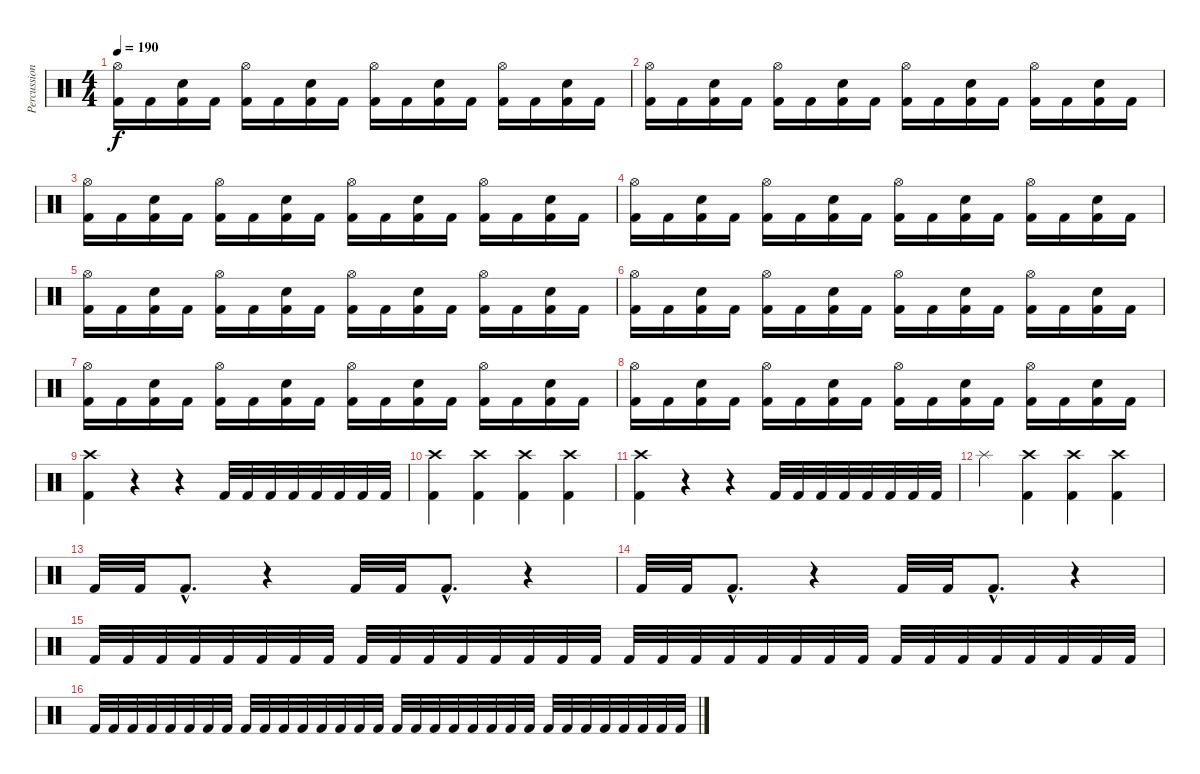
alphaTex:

\track ("Percussion" "Percussion") {instrument percussion}
\staff {score}
\articulation defaults
\ts (4 4)
\tempo 190
\clef neutral
\ks c
("Hi-Hat (open)" "Kick (hit) 2").16{dy f} "Kick (hit) 2".16 ("Snare (hit) 2" "Kick (hit) 2").16 "Kick (hit) 2".16 ("Hi-Hat (open)" "Kick (hit) 2").16 "Kick (hit) 2".16 ("Snare (hit) 2" "Kick (hit) 2").16 "Kick (hit) 2".16 ("Hi-Hat (open)" "Kick (hit) 2").16 "Kick (hit) 2".16 ("Snare (hit) 2" "Kick (hit) 2").16 "Kick (hit) 2".16 ("Hi-Hat (open)" "Kick (hit) 2").16 "Kick (hit) 2".16 ("Snare (hit) 2" "Kick (hit) 2").16 "Kick (hit) 2".16 |
("Hi-Hat (open)" "Kick (hit) 2").16 "Kick (hit) 2".16 ("Snare (hit) 2" "Kick (hit) 2").16 "Kick (hit) 2".16 ("Hi-Hat (open)" "Kick (hit) 2").16 "Kick (hit) 2".16 ("Snare (hit) 2" "Kick (hit) 2").16 "Kick (hit) 2".16 ("Hi-Hat (open)" "Kick (hit) 2").16 "Kick (hit) 2".16 ("Snare (hit) 2" "Kick (hit) 2").16 "Kick (hit) 2".16 ("Hi-Hat (open)" "Kick (hit) 2").16 "Kick (hit) 2".16 ("Snare (hit) 2" "Kick (hit) 2").16 "Kick (hit) 2".16 |
("Hi-Hat (open)" "Kick (hit) 2").16 "Kick (hit) 2".16 ("Snare (hit) 2" "Kick (hit) 2").16 "Kick (hit) 2".16 ("Hi-Hat (open)" "Kick (hit) 2").16 "Kick (hit) 2".16 ("Snare (hit) 2" "Kick (hit) 2").16 "Kick (hit) 2".16 ("Hi-Hat (open)" "Kick (hit) 2").16 "Kick (hit) 2".16 ("Snare (hit) 2" "Kick (hit) 2").16 "Kick (hit) 2".16 ("Hi-Hat (open)" "Kick (hit) 2").16 "Kick (hit) 2".16 ("Snare (hit) 2" "Kick (hit) 2").16 "Kick (hit) 2".16 |
("Hi-Hat (open)" "Kick (hit) 2").16 "Kick (hit) 2".16 ("Snare (hit) 2" "Kick (hit) 2").16 "Kick (hit) 2".16 ("Hi-Hat (open)" "Kick (hit) 2").16 "Kick (hit) 2".16 ("Snare (hit) 2" "Kick (hit) 2").16 "Kick (hit) 2".16 ("Hi-Hat (open)" "Kick (hit) 2").16 "Kick (hit) 2".16 ("Snare (hit) 2" "Kick (hit) 2").16 "Kick (hit) 2".16 ("Hi-Hat (open)" "Kick (hit) 2").16 "Kick (hit) 2".16 ("Snare (hit) 2" "Kick (hit) 2").16 "Kick (hit) 2".16 |
("Hi-Hat (open)" "Kick (hit) 2").16 "Kick (hit) 2".16 ("Snare (hit) 2" "Kick (hit) 2").16 "Kick (hit) 2".16 ("Hi-Hat (open)" "Kick (hit) 2").16 "Kick (hit) 2".16 ("Snare (hit) 2" "Kick (hit) 2").16 "Kick (hit) 2".16 ("Hi-Hat (open)" "Kick (hit) 2").16 "Kick (hit) 2".16 ("Snare (hit) 2" "Kick (hit) 2").16 "Kick (hit) 2".16 ("Hi-Hat (open)" "Kick (hit) 2").16 "Kick (hit) 2".16 ("Snare (hit) 2" "Kick (hit) 2").16 "Kick (hit) 2".16 |
("Hi-Hat (open)" "Kick (hit) 2").16 "Kick (hit) 2".16 ("Snare (hit) 2" "Kick (hit) 2").16 "Kick (hit) 2".16 ("Hi-Hat (open)" "Kick (hit) 2").16 "Kick (hit) 2".16 ("Snare (hit) 2" "Kick (hit) 2").16 "Kick (hit) 2".16 ("Hi-Hat (open)" "Kick (hit) 2").16 "Kick (hit) 2".16 ("Snare (hit) 2" "Kick (hit) 2").16 "Kick (hit) 2".16 ("Hi-Hat (open)" "Kick (hit) 2").16 "Kick (hit) 2".16 ("Snare (hit) 2" "Kick (hit) 2").16 "Kick (hit) 2".16 |
("Hi-Hat (open)" "Kick (hit) 2").16 "Kick (hit) 2".16 ("Snare (hit) 2" "Kick (hit) 2").16 "Kick (hit) 2".16 ("Hi-Hat (open)" "Kick (hit) 2").16 "Kick (hit) 2".16 ("Snare (hit) 2" "Kick (hit) 2").16 "Kick (hit) 2".16 ("Hi-Hat (open)" "Kick (hit) 2").16 "Kick (hit) 2".16 ("Snare (hit) 2" "Kick (hit) 2").16 "Kick (hit) 2".16 ("Hi-Hat (open)" "Kick (hit) 2").16 "Kick (hit) 2".16 ("Snare (hit) 2" "Kick (hit) 2").16 "Kick (hit) 2".16 |
("Hi-Hat (open)" "Kick (hit) 2").16 "Kick (hit) 2".16 ("Snare (hit) 2" "Kick (hit) 2").16 "Kick (hit) 2".16 ("Hi-Hat (open)" "Kick (hit) 2").16 "Kick (hit) 2".16 ("Snare (hit) 2" "Kick (hit) 2").16 "Kick (hit) 2".16 ("Hi-Hat (open)" "Kick (hit) 2").16 "Kick (hit) 2".16 ("Snare (hit) 2" "Kick (hit) 2").16 "Kick (hit) 2".16 ("Hi-Hat (open)" "Kick (hit) 2").16 "Kick (hit) 2".16 ("Snare (hit) 2" "Kick (hit) 2").16 "Kick (hit) 2".16 |
("Crash high (hit)" "Kick (hit) 2").4 r.4 r.4 "Kick (hit) 2".32 "Kick (hit) 2".32 "Kick (hit) 2".32 "Kick (hit) 2".32 "Kick (hit) 2".32 "Kick (hit) 2".32 "Kick (hit) 2".32 "Kick (hit) 2".32 |
("Crash high (hit)" "Kick (hit) 2").4 ("Crash high (hit)" "Kick (hit) 2").4 ("Crash high (hit)" "Kick (hit) 2").4 ("Crash high (hit)" "Kick (hit) 2").4 |
("Crash high (hit)" "Kick (hit) 2").4 r.4 r.4 "Kick (hit) 2".32 "Kick (hit) 2".32 "Kick (hit) 2".32 "Kick (hit) 2".32 "Kick (hit) 2".32 "Kick (hit) 2".32 "Kick (hit) 2".32 "Kick (hit) 2".32 |
"Splash (hit)".4 ("Crash high (hit)" "Kick (hit) 2").4 ("Crash high (hit)" "Kick (hit) 2").4 ("Crash high (hit)" "Kick (hit) 2").4 |
"Kick (hit) 2".32 "Kick (hit) 2".32 "Kick (hit) 2"{hac}.8{d} r.4 "Kick (hit) 2".32 "Kick (hit) 2".32 "Kick (hit) 2"{hac}.8{d} r.4 |
"Kick (hit) 2".32 "Kick (hit) 2".32 "Kick (hit) 2"{hac}.8{d} r.4 "Kick (hit) 2".32 "Kick (hit) 2".32 "Kick (hit) 2"{hac}.8{d} r.4 |
"Kick (hit) 2".32 "Kick (hit) 2".32 "Kick (hit) 2".32 "Kick (hit) 2".32 "Kick (hit) 2".32 "Kick (hit) 2".32 "Kick (hit) 2".32 "Kick (hit) 2".32 "Kick (hit) 2".32 "Kick (hit) 2".32 "Kick (hit) 2".32 "Kick (hit) 2".32 "Kick (hit) 2".32 "Kick (hit) 2".32 "Kick (hit) 2".32 "Kick (hit) 2".32 "Kick (hit) 2".32 "Kick (hit) 2".32 "Kick (hit) 2".32 "Kick (hit) 2".32 "Kick (hit) 2".32 "Kick (hit) 2".32 "Kick (hit) 2".32 "Kick (hit) 2".32 "Kick (hit) 2".32 "Kick (hit) 2".32 "Kick (hit) 2".32 "Kick (hit) 2".32 "Kick (hit) 2".32 "Kick (hit) 2".32 "Kick (hit) 2".32 "Kick (hit) 2".32 |
"Kick (hit) 2".32 "Kick (hit) 2".32 "Kick (hit) 2".32 "Kick (hit) 2".32 "Kick (hit) 2".32 "Kick (hit) 2".32 "Kick (hit) 2".32 "Kick (hit) 2".32 "Kick (hit) 2".32 "Kick (hit) 2".32 "Kick (hit) 2".32 "Kick (hit) 2".32 "Kick (hit) 2".32 "Kick (hit) 2".32 "Kick (hit) 2".32 "Kick (hit) 2".32 "Kick (hit) 2".32 "Kick (hit) 2".32 "Kick (hit) 2".32 "Kick (hit) 2".32 "Kick (hit) 2".32 "Kick (hit) 2".32 "Kick (hit) 2".32 "Kick (hit) 2".32 "Kick (hit) 2".32 "Kick (hit) 2".32 "Kick (hit) 2".32 "Kick (hit) 2".32 "Kick (hit) 2".32 "Kick (hit) 2".32 "Kick (hit) 2".32 "Kick (hit) 2".32
